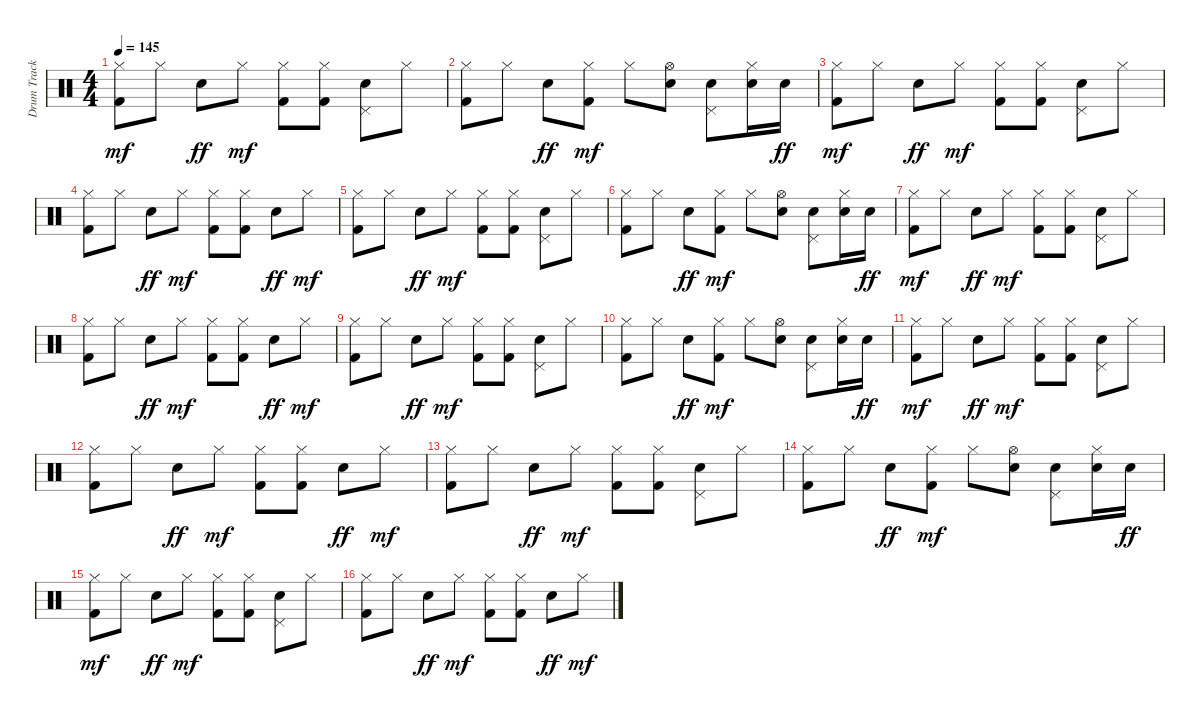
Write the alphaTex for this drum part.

\track ("Drum Track" "Drum Track") {instrument percussion}
\staff {score}
\articulation defaults
\ts (4 4)
\tempo 145
\clef neutral
\ks c
("Kick (hit) 2" "Hi-Hat (closed)").8{dy mf} "Hi-Hat (closed)".8 "Electric Snare (hit)".8{dy ff} "Hi-Hat (closed)".8{dy mf} ("Kick (hit) 2" "Hi-Hat (closed)").8 ("Kick (hit) 2" "Hi-Hat (closed)").8 ("Electric Snare (hit)" "Pedal Hi-Hat (hit)").8 "Hi-Hat (closed)".8 |
("Kick (hit) 2" "Hi-Hat (closed)").8 "Hi-Hat (closed)".8 "Electric Snare (hit)".8{dy ff} ("Kick (hit) 2" "Hi-Hat (closed)").8{dy mf} "Hi-Hat (closed)".8 ("Electric Snare (hit)" "Hi-Hat (open)").8 ("Electric Snare (hit)" "Pedal Hi-Hat (hit)").8 ("Electric Snare (hit)" "Hi-Hat (closed)").16 "Electric Snare (hit)".16{dy ff} |
("Kick (hit) 2" "Hi-Hat (closed)").8{dy mf} "Hi-Hat (closed)".8 "Electric Snare (hit)".8{dy ff} "Hi-Hat (closed)".8{dy mf} ("Kick (hit) 2" "Hi-Hat (closed)").8 ("Kick (hit) 2" "Hi-Hat (closed)").8 ("Electric Snare (hit)" "Pedal Hi-Hat (hit)").8 "Hi-Hat (closed)".8 |
("Kick (hit) 2" "Hi-Hat (closed)").8 "Hi-Hat (closed)".8 "Electric Snare (hit)".8{dy ff} "Hi-Hat (closed)".8{dy mf} ("Kick (hit) 2" "Hi-Hat (closed)").8 ("Kick (hit) 2" "Hi-Hat (closed)").8 "Electric Snare (hit)".8{dy ff} "Hi-Hat (closed)".8{dy mf} |
("Kick (hit) 2" "Hi-Hat (closed)").8 "Hi-Hat (closed)".8 "Electric Snare (hit)".8{dy ff} "Hi-Hat (closed)".8{dy mf} ("Kick (hit) 2" "Hi-Hat (closed)").8 ("Kick (hit) 2" "Hi-Hat (closed)").8 ("Electric Snare (hit)" "Pedal Hi-Hat (hit)").8 "Hi-Hat (closed)".8 |
("Kick (hit) 2" "Hi-Hat (closed)").8 "Hi-Hat (closed)".8 "Electric Snare (hit)".8{dy ff} ("Kick (hit) 2" "Hi-Hat (closed)").8{dy mf} "Hi-Hat (closed)".8 ("Electric Snare (hit)" "Hi-Hat (open)").8 ("Electric Snare (hit)" "Pedal Hi-Hat (hit)").8 ("Electric Snare (hit)" "Hi-Hat (closed)").16 "Electric Snare (hit)".16{dy ff} |
("Kick (hit) 2" "Hi-Hat (closed)").8{dy mf} "Hi-Hat (closed)".8 "Electric Snare (hit)".8{dy ff} "Hi-Hat (closed)".8{dy mf} ("Kick (hit) 2" "Hi-Hat (closed)").8 ("Kick (hit) 2" "Hi-Hat (closed)").8 ("Electric Snare (hit)" "Pedal Hi-Hat (hit)").8 "Hi-Hat (closed)".8 |
("Kick (hit) 2" "Hi-Hat (closed)").8 "Hi-Hat (closed)".8 "Electric Snare (hit)".8{dy ff} "Hi-Hat (closed)".8{dy mf} ("Kick (hit) 2" "Hi-Hat (closed)").8 ("Kick (hit) 2" "Hi-Hat (closed)").8 "Electric Snare (hit)".8{dy ff} "Hi-Hat (closed)".8{dy mf} |
("Kick (hit) 2" "Hi-Hat (closed)").8 "Hi-Hat (closed)".8 "Electric Snare (hit)".8{dy ff} "Hi-Hat (closed)".8{dy mf} ("Kick (hit) 2" "Hi-Hat (closed)").8 ("Kick (hit) 2" "Hi-Hat (closed)").8 ("Electric Snare (hit)" "Pedal Hi-Hat (hit)").8 "Hi-Hat (closed)".8 |
("Kick (hit) 2" "Hi-Hat (closed)").8 "Hi-Hat (closed)".8 "Electric Snare (hit)".8{dy ff} ("Kick (hit) 2" "Hi-Hat (closed)").8{dy mf} "Hi-Hat (closed)".8 ("Electric Snare (hit)" "Hi-Hat (open)").8 ("Electric Snare (hit)" "Pedal Hi-Hat (hit)").8 ("Electric Snare (hit)" "Hi-Hat (closed)").16 "Electric Snare (hit)".16{dy ff} |
("Kick (hit) 2" "Hi-Hat (closed)").8{dy mf} "Hi-Hat (closed)".8 "Electric Snare (hit)".8{dy ff} "Hi-Hat (closed)".8{dy mf} ("Kick (hit) 2" "Hi-Hat (closed)").8 ("Kick (hit) 2" "Hi-Hat (closed)").8 ("Electric Snare (hit)" "Pedal Hi-Hat (hit)").8 "Hi-Hat (closed)".8 |
("Kick (hit) 2" "Hi-Hat (closed)").8 "Hi-Hat (closed)".8 "Electric Snare (hit)".8{dy ff} "Hi-Hat (closed)".8{dy mf} ("Kick (hit) 2" "Hi-Hat (closed)").8 ("Kick (hit) 2" "Hi-Hat (closed)").8 "Electric Snare (hit)".8{dy ff} "Hi-Hat (closed)".8{dy mf} |
("Kick (hit) 2" "Hi-Hat (closed)").8 "Hi-Hat (closed)".8 "Electric Snare (hit)".8{dy ff} "Hi-Hat (closed)".8{dy mf} ("Kick (hit) 2" "Hi-Hat (closed)").8 ("Kick (hit) 2" "Hi-Hat (closed)").8 ("Electric Snare (hit)" "Pedal Hi-Hat (hit)").8 "Hi-Hat (closed)".8 |
("Kick (hit) 2" "Hi-Hat (closed)").8 "Hi-Hat (closed)".8 "Electric Snare (hit)".8{dy ff} ("Kick (hit) 2" "Hi-Hat (closed)").8{dy mf} "Hi-Hat (closed)".8 ("Electric Snare (hit)" "Hi-Hat (open)").8 ("Electric Snare (hit)" "Pedal Hi-Hat (hit)").8 ("Electric Snare (hit)" "Hi-Hat (closed)").16 "Electric Snare (hit)".16{dy ff} |
("Kick (hit) 2" "Hi-Hat (closed)").8{dy mf} "Hi-Hat (closed)".8 "Electric Snare (hit)".8{dy ff} "Hi-Hat (closed)".8{dy mf} ("Kick (hit) 2" "Hi-Hat (closed)").8 ("Kick (hit) 2" "Hi-Hat (closed)").8 ("Electric Snare (hit)" "Pedal Hi-Hat (hit)").8 "Hi-Hat (closed)".8 |
("Kick (hit) 2" "Hi-Hat (closed)").8 "Hi-Hat (closed)".8 "Electric Snare (hit)".8{dy ff} "Hi-Hat (closed)".8{dy mf} ("Kick (hit) 2" "Hi-Hat (closed)").8 ("Kick (hit) 2" "Hi-Hat (closed)").8 "Electric Snare (hit)".8{dy ff} "Hi-Hat (closed)".8{dy mf}
